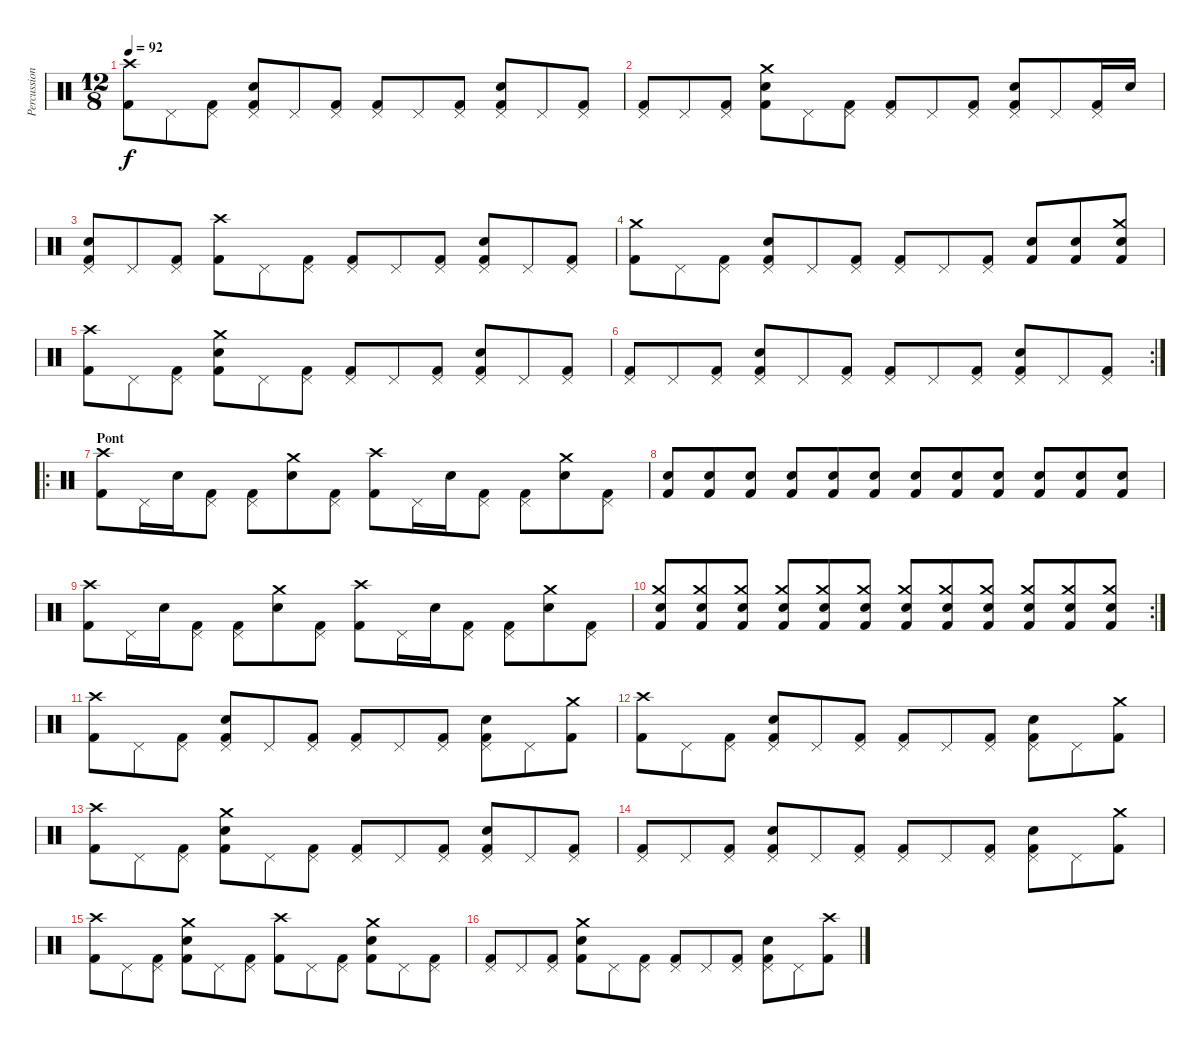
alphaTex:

\track ("Percussions" "Percussion") {instrument percussion}
\staff {score}
\articulation defaults
\ts (12 8)
\tempo 92
\clef neutral
\ks c
("Crash high (hit)" "Kick (hit) 2").8{dy f} "Pedal Hi-Hat (hit)".8 ("Pedal Hi-Hat (hit)" "Kick (hit) 2").8 ("Pedal Hi-Hat (hit)" "Electric Snare (hit)" "Kick (hit) 2").8 "Pedal Hi-Hat (hit)".8 ("Pedal Hi-Hat (hit)" "Kick (hit) 2").8 ("Pedal Hi-Hat (hit)" "Kick (hit) 2").8 "Pedal Hi-Hat (hit)".8 ("Pedal Hi-Hat (hit)" "Kick (hit) 2").8 ("Pedal Hi-Hat (hit)" "Electric Snare (hit)" "Kick (hit) 2").8 "Pedal Hi-Hat (hit)".8 ("Pedal Hi-Hat (hit)" "Kick (hit) 2").8 |
("Pedal Hi-Hat (hit)" "Kick (hit) 2").8 "Pedal Hi-Hat (hit)".8 ("Pedal Hi-Hat (hit)" "Kick (hit) 2").8 ("Crash medium (hit)" "Electric Snare (hit)" "Kick (hit) 2").8 "Pedal Hi-Hat (hit)".8 ("Pedal Hi-Hat (hit)" "Kick (hit) 2").8 ("Pedal Hi-Hat (hit)" "Kick (hit) 2").8 "Pedal Hi-Hat (hit)".8 ("Pedal Hi-Hat (hit)" "Kick (hit) 2").8 ("Pedal Hi-Hat (hit)" "Electric Snare (hit)" "Kick (hit) 2").8 "Pedal Hi-Hat (hit)".8 ("Pedal Hi-Hat (hit)" "Kick (hit) 2").16 "Snare (hit) 2".16 |
("Pedal Hi-Hat (hit)" "Electric Snare (hit)" "Kick (hit) 2").8 "Pedal Hi-Hat (hit)".8 ("Pedal Hi-Hat (hit)" "Kick (hit) 2").8 ("Crash high (hit)" "Kick (hit) 2").8 "Pedal Hi-Hat (hit)".8 ("Pedal Hi-Hat (hit)" "Kick (hit) 2").8 ("Pedal Hi-Hat (hit)" "Kick (hit) 2").8 "Pedal Hi-Hat (hit)".8 ("Pedal Hi-Hat (hit)" "Kick (hit) 2").8 ("Pedal Hi-Hat (hit)" "Electric Snare (hit)" "Kick (hit) 2").8 "Pedal Hi-Hat (hit)".8 ("Pedal Hi-Hat (hit)" "Kick (hit) 2").8 |
("Crash medium (hit)" "Kick (hit) 2").8 "Pedal Hi-Hat (hit)".8 ("Pedal Hi-Hat (hit)" "Kick (hit) 2").8 ("Pedal Hi-Hat (hit)" "Electric Snare (hit)" "Kick (hit) 2").8 "Pedal Hi-Hat (hit)".8 ("Pedal Hi-Hat (hit)" "Kick (hit) 2").8 ("Pedal Hi-Hat (hit)" "Kick (hit) 2").8 "Pedal Hi-Hat (hit)".8 ("Pedal Hi-Hat (hit)" "Kick (hit) 2").8 ("Snare (hit) 2" "Kick (hit) 2").8 ("Snare (hit) 2" "Kick (hit) 2").8 ("Crash medium (hit)" "Snare (hit) 2" "Kick (hit) 2").8 |
("Crash high (hit)" "Kick (hit) 2").8 "Pedal Hi-Hat (hit)".8 ("Pedal Hi-Hat (hit)" "Kick (hit) 2").8 ("Crash medium (hit)" "Electric Snare (hit)" "Kick (hit) 2").8 "Pedal Hi-Hat (hit)".8 ("Pedal Hi-Hat (hit)" "Kick (hit) 2").8 ("Pedal Hi-Hat (hit)" "Kick (hit) 2").8 "Pedal Hi-Hat (hit)".8 ("Pedal Hi-Hat (hit)" "Kick (hit) 2").8 ("Pedal Hi-Hat (hit)" "Electric Snare (hit)" "Kick (hit) 2").8 "Pedal Hi-Hat (hit)".8 ("Pedal Hi-Hat (hit)" "Kick (hit) 2").8 |
\rc 2
("Pedal Hi-Hat (hit)" "Kick (hit) 2").8 "Pedal Hi-Hat (hit)".8 ("Pedal Hi-Hat (hit)" "Kick (hit) 2").8 ("Pedal Hi-Hat (hit)" "Electric Snare (hit)" "Kick (hit) 2").8 "Pedal Hi-Hat (hit)".8 ("Pedal Hi-Hat (hit)" "Kick (hit) 2").8 ("Pedal Hi-Hat (hit)" "Kick (hit) 2").8 "Pedal Hi-Hat (hit)".8 ("Pedal Hi-Hat (hit)" "Kick (hit) 2").8 ("Pedal Hi-Hat (hit)" "Electric Snare (hit)" "Kick (hit) 2").8 "Pedal Hi-Hat (hit)".8 ("Pedal Hi-Hat (hit)" "Kick (hit) 2").8 |
\ro
\section ("" "Pont")
("Crash high (hit)" "Kick (hit) 2").8 "Pedal Hi-Hat (hit)".16 "Electric Snare (hit)".16 ("Pedal Hi-Hat (hit)" "Kick (hit) 2").8 ("Pedal Hi-Hat (hit)" "Kick (hit) 2").8 ("Crash medium (hit)" "Electric Snare (hit)").8 ("Pedal Hi-Hat (hit)" "Kick (hit) 2").8 ("Crash high (hit)" "Kick (hit) 2").8 "Pedal Hi-Hat (hit)".16 "Electric Snare (hit)".16 ("Pedal Hi-Hat (hit)" "Kick (hit) 2").8 ("Pedal Hi-Hat (hit)" "Kick (hit) 2").8 ("Crash medium (hit)" "Electric Snare (hit)").8 ("Pedal Hi-Hat (hit)" "Kick (hit) 2").8 |
("Snare (hit) 2" "Kick (hit) 2").8 ("Snare (hit) 2" "Kick (hit) 2").8 ("Snare (hit) 2" "Kick (hit) 2").8 ("Snare (hit) 2" "Kick (hit) 2").8 ("Snare (hit) 2" "Kick (hit) 2").8 ("Snare (hit) 2" "Kick (hit) 2").8 ("Snare (hit) 2" "Kick (hit) 2").8 ("Snare (hit) 2" "Kick (hit) 2").8 ("Snare (hit) 2" "Kick (hit) 2").8 ("Snare (hit) 2" "Kick (hit) 2").8 ("Snare (hit) 2" "Kick (hit) 2").8 ("Snare (hit) 2" "Kick (hit) 2").8 |
("Crash high (hit)" "Kick (hit) 2").8 "Pedal Hi-Hat (hit)".16 "Electric Snare (hit)".16 ("Pedal Hi-Hat (hit)" "Kick (hit) 2").8 ("Pedal Hi-Hat (hit)" "Kick (hit) 2").8 ("Crash medium (hit)" "Electric Snare (hit)").8 ("Pedal Hi-Hat (hit)" "Kick (hit) 2").8 ("Crash high (hit)" "Kick (hit) 2").8 "Pedal Hi-Hat (hit)".16 "Electric Snare (hit)".16 ("Pedal Hi-Hat (hit)" "Kick (hit) 2").8 ("Pedal Hi-Hat (hit)" "Kick (hit) 2").8 ("Crash medium (hit)" "Electric Snare (hit)").8 ("Pedal Hi-Hat (hit)" "Kick (hit) 2").8 |
\rc 2
("Crash medium (hit)" "Snare (hit) 2" "Kick (hit) 2").8 ("Crash medium (hit)" "Snare (hit) 2" "Kick (hit) 2").8 ("Crash medium (hit)" "Snare (hit) 2" "Kick (hit) 2").8 ("Crash medium (hit)" "Snare (hit) 2" "Kick (hit) 2").8 ("Crash medium (hit)" "Snare (hit) 2" "Kick (hit) 2").8 ("Crash medium (hit)" "Snare (hit) 2" "Kick (hit) 2").8 ("Crash medium (hit)" "Snare (hit) 2" "Kick (hit) 2").8 ("Crash medium (hit)" "Snare (hit) 2" "Kick (hit) 2").8 ("Crash medium (hit)" "Snare (hit) 2" "Kick (hit) 2").8 ("Crash medium (hit)" "Snare (hit) 2" "Kick (hit) 2").8 ("Crash medium (hit)" "Snare (hit) 2" "Kick (hit) 2").8 ("Crash medium (hit)" "Snare (hit) 2" "Kick (hit) 2").8 |
("Crash high (hit)" "Kick (hit) 2").8 "Pedal Hi-Hat (hit)".8 ("Pedal Hi-Hat (hit)" "Kick (hit) 2").8 ("Pedal Hi-Hat (hit)" "Electric Snare (hit)" "Kick (hit) 2").8 "Pedal Hi-Hat (hit)".8 ("Pedal Hi-Hat (hit)" "Kick (hit) 2").8 ("Pedal Hi-Hat (hit)" "Kick (hit) 2").8 "Pedal Hi-Hat (hit)".8 ("Pedal Hi-Hat (hit)" "Kick (hit) 2").8 ("Pedal Hi-Hat (hit)" "Electric Snare (hit)" "Kick (hit) 2").8 "Pedal Hi-Hat (hit)".8 ("Crash medium (hit)" "Kick (hit) 2").8 |
("Crash high (hit)" "Kick (hit) 2").8 "Pedal Hi-Hat (hit)".8 ("Pedal Hi-Hat (hit)" "Kick (hit) 2").8 ("Pedal Hi-Hat (hit)" "Electric Snare (hit)" "Kick (hit) 2").8 "Pedal Hi-Hat (hit)".8 ("Pedal Hi-Hat (hit)" "Kick (hit) 2").8 ("Pedal Hi-Hat (hit)" "Kick (hit) 2").8 "Pedal Hi-Hat (hit)".8 ("Pedal Hi-Hat (hit)" "Kick (hit) 2").8 ("Pedal Hi-Hat (hit)" "Electric Snare (hit)" "Kick (hit) 2").8 "Pedal Hi-Hat (hit)".8 ("Crash medium (hit)" "Kick (hit) 2").8 |
("Crash high (hit)" "Kick (hit) 2").8 "Pedal Hi-Hat (hit)".8 ("Pedal Hi-Hat (hit)" "Kick (hit) 2").8 ("Crash medium (hit)" "Electric Snare (hit)" "Kick (hit) 2").8 "Pedal Hi-Hat (hit)".8 ("Pedal Hi-Hat (hit)" "Kick (hit) 2").8 ("Pedal Hi-Hat (hit)" "Kick (hit) 2").8 "Pedal Hi-Hat (hit)".8 ("Pedal Hi-Hat (hit)" "Kick (hit) 2").8 ("Pedal Hi-Hat (hit)" "Electric Snare (hit)" "Kick (hit) 2").8 "Pedal Hi-Hat (hit)".8 ("Pedal Hi-Hat (hit)" "Kick (hit) 2").8 |
("Pedal Hi-Hat (hit)" "Kick (hit) 2").8 "Pedal Hi-Hat (hit)".8 ("Pedal Hi-Hat (hit)" "Kick (hit) 2").8 ("Pedal Hi-Hat (hit)" "Electric Snare (hit)" "Kick (hit) 2").8 "Pedal Hi-Hat (hit)".8 ("Pedal Hi-Hat (hit)" "Kick (hit) 2").8 ("Pedal Hi-Hat (hit)" "Kick (hit) 2").8 "Pedal Hi-Hat (hit)".8 ("Pedal Hi-Hat (hit)" "Kick (hit) 2").8 ("Pedal Hi-Hat (hit)" "Electric Snare (hit)" "Kick (hit) 2").8 "Pedal Hi-Hat (hit)".8 ("Crash medium (hit)" "Kick (hit) 2").8 |
("Crash high (hit)" "Kick (hit) 2").8 "Pedal Hi-Hat (hit)".8 ("Pedal Hi-Hat (hit)" "Kick (hit) 2").8 ("Crash medium (hit)" "Electric Snare (hit)" "Kick (hit) 2").8 "Pedal Hi-Hat (hit)".8 ("Pedal Hi-Hat (hit)" "Kick (hit) 2").8 ("Crash high (hit)" "Kick (hit) 2").8 "Pedal Hi-Hat (hit)".8 ("Pedal Hi-Hat (hit)" "Kick (hit) 2").8 ("Crash medium (hit)" "Electric Snare (hit)" "Kick (hit) 2").8 "Pedal Hi-Hat (hit)".8 ("Pedal Hi-Hat (hit)" "Kick (hit) 2").8 |
("Pedal Hi-Hat (hit)" "Kick (hit) 2").8 "Pedal Hi-Hat (hit)".8 ("Pedal Hi-Hat (hit)" "Kick (hit) 2").8 ("Crash medium (hit)" "Electric Snare (hit)" "Kick (hit) 2").8 "Pedal Hi-Hat (hit)".8 ("Pedal Hi-Hat (hit)" "Kick (hit) 2").8 ("Pedal Hi-Hat (hit)" "Kick (hit) 2").8 "Pedal Hi-Hat (hit)".8 ("Pedal Hi-Hat (hit)" "Kick (hit) 2").8 ("Pedal Hi-Hat (hit)" "Electric Snare (hit)" "Kick (hit) 2").8 "Pedal Hi-Hat (hit)".8 ("Crash high (hit)" "Kick (hit) 2").8
